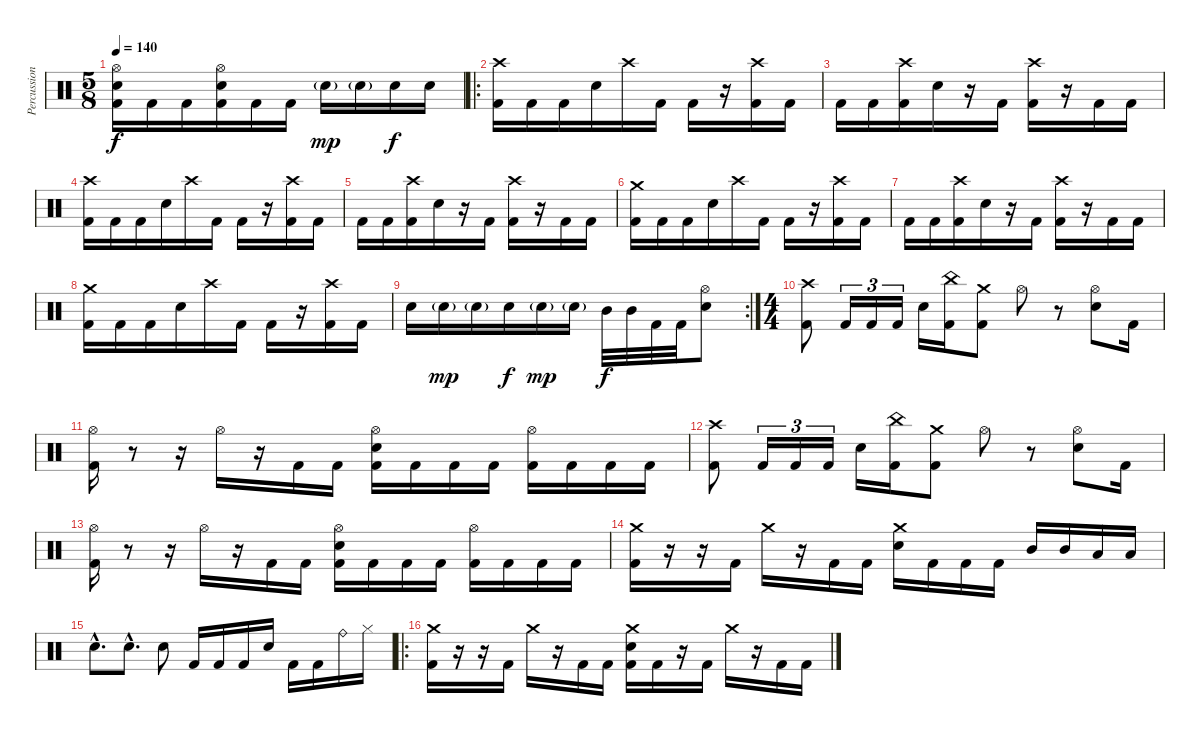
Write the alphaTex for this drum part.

\track ("Percussion" "Percussion") {instrument percussion}
\staff {score}
\articulation defaults
\ts (5 8)
\tempo 140
\clef neutral
\ks c
("Hi-Hat (open)" "Electric Snare (hit)" "Kick (hit) 2").16{dy f} "Kick (hit) 2".16 "Kick (hit) 2".16 ("Hi-Hat (open)" "Electric Snare (hit)" "Kick (hit) 2").16 "Kick (hit) 2".16 "Kick (hit) 2".16 "Electric Snare (hit)"{g}.16{dy mp} "Electric Snare (hit)"{g}.16 "Electric Snare (hit)".16{dy f} "Electric Snare (hit)".16 |
\ro
("Crash high (hit)" "Kick (hit) 2").16 "Kick (hit) 2".16 "Kick (hit) 2".16 "Electric Snare (hit)".16 "Crash high (hit)".16 "Kick (hit) 2".16 "Kick (hit) 2".16 r.16 ("Crash high (hit)" "Kick (hit) 2").16 "Kick (hit) 2".16 |
"Kick (hit) 2".16 "Kick (hit) 2".16 ("Crash high (hit)" "Kick (hit) 2").16 "Electric Snare (hit)".16 r.16 "Kick (hit) 2".16 ("Crash high (hit)" "Kick (hit) 2").16 r.16 "Kick (hit) 2".16 "Kick (hit) 2".16 |
("Crash high (hit)" "Kick (hit) 2").16 "Kick (hit) 2".16 "Kick (hit) 2".16 "Electric Snare (hit)".16 "Crash high (hit)".16 "Kick (hit) 2".16 "Kick (hit) 2".16 r.16 ("Crash high (hit)" "Kick (hit) 2").16 "Kick (hit) 2".16 |
"Kick (hit) 2".16 "Kick (hit) 2".16 ("Crash high (hit)" "Kick (hit) 2").16 "Electric Snare (hit)".16 r.16 "Kick (hit) 2".16 ("Crash high (hit)" "Kick (hit) 2").16 r.16 "Kick (hit) 2".16 "Kick (hit) 2".16 |
("Crash medium (hit)" "Kick (hit) 2").16 "Kick (hit) 2".16 "Kick (hit) 2".16 "Electric Snare (hit)".16 "Crash high (hit)".16 "Kick (hit) 2".16 "Kick (hit) 2".16 r.16 ("Crash high (hit)" "Kick (hit) 2").16 "Kick (hit) 2".16 |
"Kick (hit) 2".16 "Kick (hit) 2".16 ("Crash high (hit)" "Kick (hit) 2").16 "Electric Snare (hit)".16 r.16 "Kick (hit) 2".16 ("Crash high (hit)" "Kick (hit) 2").16 r.16 "Kick (hit) 2".16 "Kick (hit) 2".16 |
("Crash medium (hit)" "Kick (hit) 2").16 "Kick (hit) 2".16 "Kick (hit) 2".16 "Electric Snare (hit)".16 "Crash high (hit)".16 "Kick (hit) 2".16 "Kick (hit) 2".16 r.16 ("Crash high (hit)" "Kick (hit) 2").16 "Kick (hit) 2".16 |
\rc 2 "Electric Snare (hit)".16 "Electric Snare (hit)"{g}.16{dy mp} "Electric Snare (hit)"{g}.16 "Electric Snare (hit)".16{dy f} "Electric Snare (hit)"{g}.16{dy mp} "Electric Snare (hit)"{g}.16 "Mid Tom (hit)".32{dy f} "Mid Tom (hit)".32 "Kick (hit) 2".32 "Kick (hit) 2".32
("Hi-Hat (open)" "Electric Snare (hit)").8 |
\ts (4 4)
("Crash high (hit)" "Kick (hit) 2").8 "Kick (hit) 2".16{tu (3 2)} "Kick (hit) 2".16{tu (3 2)} "Kick (hit) 2".16{tu (3 2)} "Electric Snare (hit)".16 ("China (hit)" "Kick (hit) 2").16 ("Crash medium (hit)" "Kick (hit) 2").8 "Hi-Hat (open)".8 r.8 ("Electric Snare (hit)" "Hi-Hat (open)").8 "Kick (hit) 2".16 |
("Hi-Hat (open)" "Kick (hit) 2").16 r.8 r.16 "Hi-Hat (open)".16 r.16 "Kick (hit) 2".16 "Kick (hit) 2".16 ("Hi-Hat (open)" "Electric Snare (hit)" "Kick (hit) 2").16 "Kick (hit) 2".16 "Kick (hit) 2".16 "Kick (hit) 2".16 ("Hi-Hat (open)" "Kick (hit) 2").16 "Kick (hit) 2".16 "Kick (hit) 2".16 "Kick (hit) 2".16 |
("Crash high (hit)" "Kick (hit) 2").8 "Kick (hit) 2".16{tu (3 2)} "Kick (hit) 2".16{tu (3 2)} "Kick (hit) 2".16{tu (3 2)} "Electric Snare (hit)".16 ("China (hit)" "Kick (hit) 2").16 ("Crash medium (hit)" "Kick (hit) 2").8 "Hi-Hat (open)".8 r.8 ("Electric Snare (hit)" "Hi-Hat (open)").8 "Kick (hit) 2".16 |
("Hi-Hat (open)" "Kick (hit) 2").16 r.8 r.16 "Hi-Hat (open)".16 r.16 "Kick (hit) 2".16 "Kick (hit) 2".16 ("Hi-Hat (open)" "Electric Snare (hit)" "Kick (hit) 2").16 "Kick (hit) 2".16 "Kick (hit) 2".16 "Kick (hit) 2".16 ("Hi-Hat (open)" "Kick (hit) 2").16 "Kick (hit) 2".16 "Kick (hit) 2".16 "Kick (hit) 2".16 |
("Crash medium (hit)" "Kick (hit) 2").16 r.16 r.16 "Kick (hit) 2".16 "Crash medium (hit)".16 r.16 "Kick (hit) 2".16 "Kick (hit) 2".16 ("Crash medium (hit)" "Electric Snare (hit)").16 "Kick (hit) 2".16 "Kick (hit) 2".16 "Kick (hit) 2".16 "Mid Tom (hit)".16 "Mid Tom (hit)".16 "Low Tom (hit)".16 "Low Tom (hit)".16 |
"Electric Snare (hit)"{hac}.8{d} "Electric Snare (hit)"{hac}.8{d} "Electric Snare (hit)".8 "Kick (hit) 2".16 "Kick (hit) 2".16 "Kick (hit) 2".16 "Electric Snare (hit)".16 "Kick (hit) 2".16 "Kick (hit) 2".16 "Ride (bell)".16 "Hi-Hat (closed)".16 |
\ro
("Crash medium (hit)" "Kick (hit) 2").16 r.16 r.16 "Kick (hit) 2".16 "Crash medium (hit)".16 r.16 "Kick (hit) 2".16 "Kick (hit) 2".16 ("Crash medium (hit)" "Electric Snare (hit)" "Kick (hit) 2").16 "Kick (hit) 2".16 r.16 "Kick (hit) 2".16 "Crash medium (hit)".16 r.16 "Kick (hit) 2".16 "Kick (hit) 2".16
